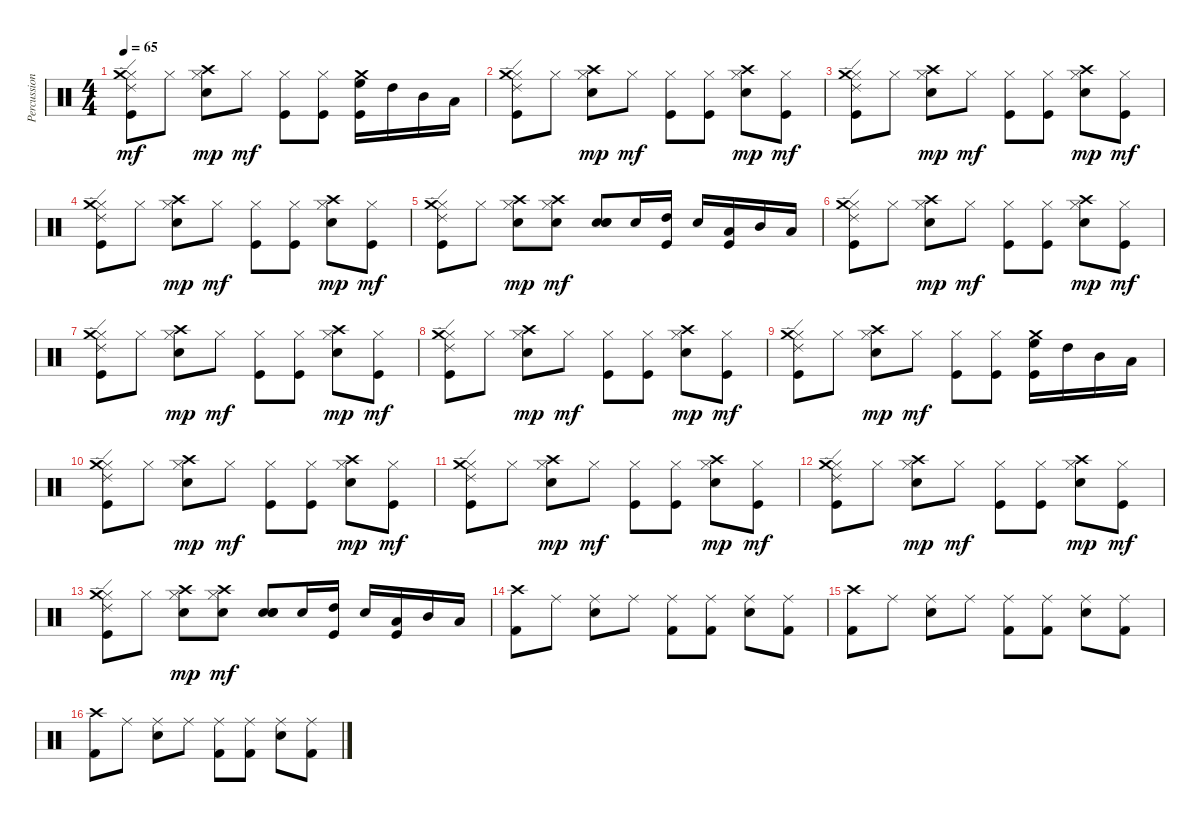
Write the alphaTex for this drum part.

\track ("Percussion" "Percussion") {instrument percussion}
\staff {score}
\articulation defaults
\ts (4 4)
\tempo 65
\clef neutral
\ks c
("Hi-Hat (closed)" "Ride (edge) 2" "Crash medium (hit)" "Kick (hit)").8{dy mf} "Hi-Hat (closed)".8 ("Hi-Hat (closed)" "Snare (hit) 2" "Crash high (hit)").8{dy mp} "Hi-Hat (closed)".8{dy mf} ("Hi-Hat (closed)" "Kick (hit)").8 ("Hi-Hat (closed)" "Kick (hit)").8 ("High Floor Tom (hit)" "Crash medium (hit)" "Kick (hit)").16 "High Tom (hit)".16 "Mid Tom (hit)".16 "Low Tom (hit)".16 |
("Hi-Hat (closed)" "Ride (edge) 2" "Crash medium (hit)" "Kick (hit)").8 "Hi-Hat (closed)".8 ("Hi-Hat (closed)" "Snare (hit) 2" "Crash high (hit)").8{dy mp} "Hi-Hat (closed)".8{dy mf} ("Hi-Hat (closed)" "Kick (hit)").8 ("Hi-Hat (closed)" "Kick (hit)").8 ("Hi-Hat (closed)" "Snare (hit) 2" "Crash high (hit)").8{dy mp} ("Hi-Hat (closed)" "Kick (hit)").8{dy mf} |
("Hi-Hat (closed)" "Ride (edge) 2" "Crash medium (hit)" "Kick (hit)").8 "Hi-Hat (closed)".8 ("Hi-Hat (closed)" "Snare (hit) 2" "Crash high (hit)").8{dy mp} "Hi-Hat (closed)".8{dy mf} ("Hi-Hat (closed)" "Kick (hit)").8 ("Hi-Hat (closed)" "Kick (hit)").8 ("Hi-Hat (closed)" "Snare (hit) 2" "Crash high (hit)").8{dy mp} ("Hi-Hat (closed)" "Kick (hit)").8{dy mf} |
("Hi-Hat (closed)" "Ride (edge) 2" "Crash medium (hit)" "Kick (hit)").8 "Hi-Hat (closed)".8 ("Hi-Hat (closed)" "Snare (hit) 2" "Crash high (hit)").8{dy mp} "Hi-Hat (closed)".8{dy mf} ("Hi-Hat (closed)" "Kick (hit)").8 ("Hi-Hat (closed)" "Kick (hit)").8 ("Hi-Hat (closed)" "Snare (hit) 2" "Crash high (hit)").8{dy mp} ("Hi-Hat (closed)" "Kick (hit)").8{dy mf} |
("Hi-Hat (closed)" "Ride (edge) 2" "Crash medium (hit)" "Kick (hit)").8 "Hi-Hat (closed)".8 ("Hi-Hat (closed)" "Snare (hit) 2" "Crash high (hit)").8{dy mp} ("Hi-Hat (closed)" "Snare (hit) 2" "Crash high (hit)").8{dy mf} ("Snare (hit) 2" "Snare (hit) 2" "Snare (hit) 2").8{bd 480} "Snare (hit) 2".16 ("Kick (hit)" "High Tom (hit)").16 "Snare (hit) 2".16 ("Low Tom (hit)" "Kick (hit)").16 "Mid Tom (hit)".16 "Low Tom (hit)".16 |
("Hi-Hat (closed)" "Ride (edge) 2" "Crash medium (hit)" "Kick (hit)").8 "Hi-Hat (closed)".8 ("Hi-Hat (closed)" "Snare (hit) 2" "Crash high (hit)").8{dy mp} "Hi-Hat (closed)".8{dy mf} ("Hi-Hat (closed)" "Kick (hit)").8 ("Hi-Hat (closed)" "Kick (hit)").8 ("Hi-Hat (closed)" "Snare (hit) 2" "Crash high (hit)").8{dy mp} ("Hi-Hat (closed)" "Kick (hit)").8{dy mf} |
("Hi-Hat (closed)" "Ride (edge) 2" "Crash medium (hit)" "Kick (hit)").8 "Hi-Hat (closed)".8 ("Hi-Hat (closed)" "Snare (hit) 2" "Crash high (hit)").8{dy mp} "Hi-Hat (closed)".8{dy mf} ("Hi-Hat (closed)" "Kick (hit)").8 ("Hi-Hat (closed)" "Kick (hit)").8 ("Hi-Hat (closed)" "Snare (hit) 2" "Crash high (hit)").8{dy mp} ("Hi-Hat (closed)" "Kick (hit)").8{dy mf} |
("Hi-Hat (closed)" "Ride (edge) 2" "Crash medium (hit)" "Kick (hit)").8 "Hi-Hat (closed)".8 ("Hi-Hat (closed)" "Snare (hit) 2" "Crash high (hit)").8{dy mp} "Hi-Hat (closed)".8{dy mf} ("Hi-Hat (closed)" "Kick (hit)").8 ("Hi-Hat (closed)" "Kick (hit)").8 ("Hi-Hat (closed)" "Snare (hit) 2" "Crash high (hit)").8{dy mp} ("Hi-Hat (closed)" "Kick (hit)").8{dy mf} |
("Hi-Hat (closed)" "Ride (edge) 2" "Crash medium (hit)" "Kick (hit)").8 "Hi-Hat (closed)".8 ("Hi-Hat (closed)" "Snare (hit) 2" "Crash high (hit)").8{dy mp} "Hi-Hat (closed)".8{dy mf} ("Hi-Hat (closed)" "Kick (hit)").8 ("Hi-Hat (closed)" "Kick (hit)").8 ("High Floor Tom (hit)" "Crash medium (hit)" "Kick (hit)").16 "High Tom (hit)".16 "Mid Tom (hit)".16 "Low Tom (hit)".16 |
("Hi-Hat (closed)" "Ride (edge) 2" "Crash medium (hit)" "Kick (hit)").8 "Hi-Hat (closed)".8 ("Hi-Hat (closed)" "Snare (hit) 2" "Crash high (hit)").8{dy mp} "Hi-Hat (closed)".8{dy mf} ("Hi-Hat (closed)" "Kick (hit)").8 ("Hi-Hat (closed)" "Kick (hit)").8 ("Hi-Hat (closed)" "Snare (hit) 2" "Crash high (hit)").8{dy mp} ("Hi-Hat (closed)" "Kick (hit)").8{dy mf} |
("Hi-Hat (closed)" "Ride (edge) 2" "Crash medium (hit)" "Kick (hit)").8 "Hi-Hat (closed)".8 ("Hi-Hat (closed)" "Snare (hit) 2" "Crash high (hit)").8{dy mp} "Hi-Hat (closed)".8{dy mf} ("Hi-Hat (closed)" "Kick (hit)").8 ("Hi-Hat (closed)" "Kick (hit)").8 ("Hi-Hat (closed)" "Snare (hit) 2" "Crash high (hit)").8{dy mp} ("Hi-Hat (closed)" "Kick (hit)").8{dy mf} |
("Hi-Hat (closed)" "Ride (edge) 2" "Crash medium (hit)" "Kick (hit)").8 "Hi-Hat (closed)".8 ("Hi-Hat (closed)" "Snare (hit) 2" "Crash high (hit)").8{dy mp} "Hi-Hat (closed)".8{dy mf} ("Hi-Hat (closed)" "Kick (hit)").8 ("Hi-Hat (closed)" "Kick (hit)").8 ("Hi-Hat (closed)" "Snare (hit) 2" "Crash high (hit)").8{dy mp} ("Hi-Hat (closed)" "Kick (hit)").8{dy mf} |
("Hi-Hat (closed)" "Ride (edge) 2" "Crash medium (hit)" "Kick (hit)").8 "Hi-Hat (closed)".8 ("Hi-Hat (closed)" "Snare (hit) 2" "Crash high (hit)").8{dy mp} ("Hi-Hat (closed)" "Snare (hit) 2" "Crash high (hit)").8{dy mf} ("Snare (hit) 2" "Snare (hit) 2" "Snare (hit) 2").8{bd 480} "Snare (hit) 2".16 ("Kick (hit)" "High Tom (hit)").16 "Snare (hit) 2".16 ("Low Tom (hit)" "Kick (hit)").16 "Mid Tom (hit)".16 "Low Tom (hit)".16 |
("Crash high (hit)" "Kick (hit) 2").8 "Ride (middle)".8 ("Snare (hit) 2" "Ride (middle)").8 "Ride (middle)".8 ("Kick (hit) 2" "Ride (middle)").8 ("Kick (hit) 2" "Ride (middle)").8 ("Snare (hit) 2" "Ride (middle)").8 ("Kick (hit) 2" "Ride (middle)").8 |
("Crash high (hit)" "Kick (hit) 2").8 "Ride (middle)".8 ("Snare (hit) 2" "Ride (middle)").8 "Ride (middle)".8 ("Kick (hit) 2" "Ride (middle)").8 ("Kick (hit) 2" "Ride (middle)").8 ("Snare (hit) 2" "Ride (middle)").8 ("Kick (hit) 2" "Ride (middle)").8 |
("Crash high (hit)" "Kick (hit) 2").8 "Ride (middle)".8 ("Snare (hit) 2" "Ride (middle)").8 "Ride (middle)".8 ("Kick (hit) 2" "Ride (middle)").8 ("Kick (hit) 2" "Ride (middle)").8 ("Snare (hit) 2" "Ride (middle)").8 ("Kick (hit) 2" "Ride (middle)").8
